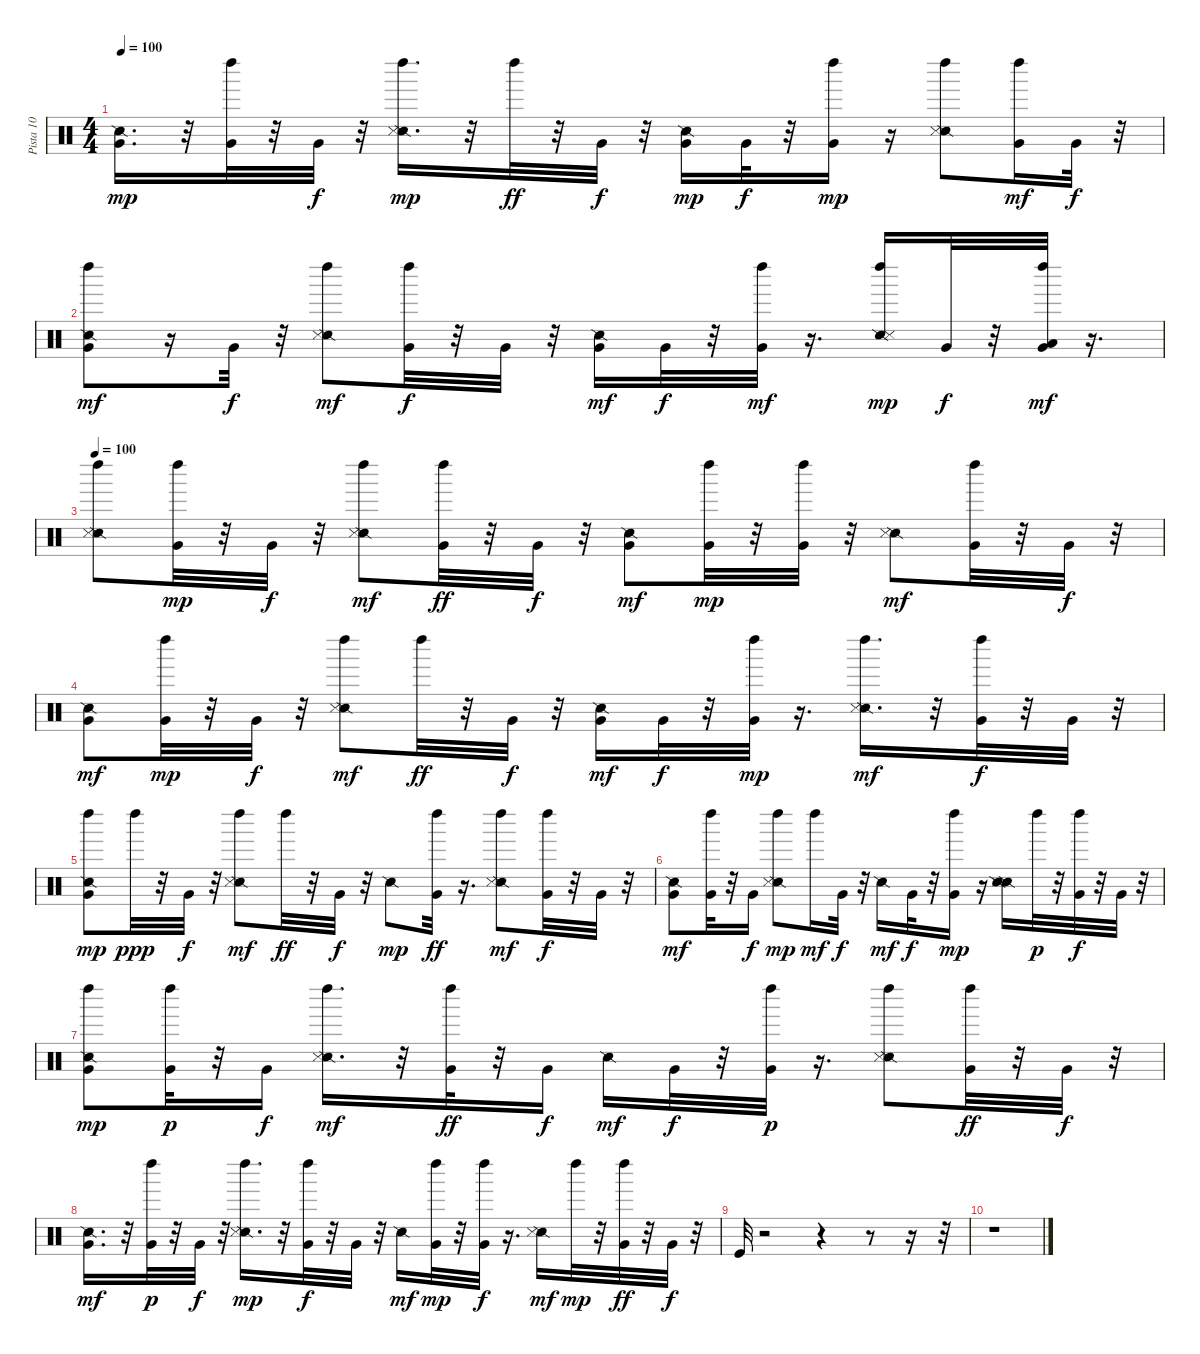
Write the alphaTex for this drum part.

\track ("Pista 10" "Pista 10") {instrument percussion}
\staff {score}
\articulation defaults
\ts (4 4)
\tempo 100
\clef neutral
\ks c
("Snare (side stick) 2" "Very Low Tom (hit)").16{d dy mp} r.32 ("Very Low Tom (hit)" "Left Maraca (hit)").32 r.32 "Very Low Tom (hit)".32{dy f} r.32 ("Snare (side stick) 2" "Metronome (hit)" "Left Maraca (hit)").16{d dy mp} r.32 "Left Maraca (hit)".32{dy ff} r.32 "Very Low Tom (hit)".32{dy f} r.32 ("Snare (side stick) 2" "Very Low Tom (hit)").16{dy mp} "Very Low Tom (hit)".32{dy f} r.32 ("Very Low Tom (hit)" "Left Maraca (hit)").16{dy mp} r.16 ("Snare (side stick) 2" "Metronome (hit)" "Left Maraca (hit)").8 ("Very Low Tom (hit)" "Left Maraca (hit)").16{dy mf} "Very Low Tom (hit)".32{dy f} r.32 |
("Snare (side stick) 2" "Very Low Tom (hit)" "Left Maraca (hit)").8{dy mf} r.16 "Very Low Tom (hit)".32{dy f} r.32 ("Snare (side stick) 2" "Metronome (hit)" "Left Maraca (hit)").8{dy mf} ("Very Low Tom (hit)" "Left Maraca (hit)").32{dy f} r.32 "Very Low Tom (hit)".32 r.32 ("Snare (side stick) 2" "Very Low Tom (hit)").16{dy mf} "Very Low Tom (hit)".32{dy f} r.32 ("Very Low Tom (hit)" "Left Maraca (hit)").32{dy mf} r.16{d} ("Snare (side stick) 2" "Metronome (hit)" "Left Maraca (hit)").16{dy mp} "Very Low Tom (hit)".32{dy f} r.32 ("Very Low Tom (hit)" "Low Tom (hit)" "Left Maraca (hit)").32{dy mf} r.16{d} |
\tempo 100
("Snare (side stick) 2" "Metronome (hit)" "Left Maraca (hit)").8 ("Very Low Tom (hit)" "Left Maraca (hit)").32{dy mp} r.32 "Very Low Tom (hit)".32{dy f} r.32 ("Snare (side stick) 2" "Metronome (hit)" "Left Maraca (hit)").8{dy mf} ("Very Low Tom (hit)" "Left Maraca (hit)").32{dy ff} r.32 "Very Low Tom (hit)".32{dy f} r.32 ("Snare (side stick) 2" "Very Low Tom (hit)").8{dy mf} ("Very Low Tom (hit)" "Left Maraca (hit)").32{dy mp} r.32 ("Very Low Tom (hit)" "Left Maraca (hit)").32 r.32 ("Snare (side stick) 2" "Metronome (hit)").8{dy mf} ("Very Low Tom (hit)" "Left Maraca (hit)").32 r.32 "Very Low Tom (hit)".32{dy f} r.32 |
("Snare (side stick) 2" "Very Low Tom (hit)").8{dy mf} ("Very Low Tom (hit)" "Left Maraca (hit)").32{dy mp} r.32 "Very Low Tom (hit)".32{dy f} r.32 ("Snare (side stick) 2" "Metronome (hit)" "Left Maraca (hit)").8{dy mf} "Left Maraca (hit)".32{dy ff} r.32 "Very Low Tom (hit)".32{dy f} r.32 ("Snare (side stick) 2" "Very Low Tom (hit)").16{dy mf} "Very Low Tom (hit)".32{dy f} r.32 ("Very Low Tom (hit)" "Left Maraca (hit)").32{dy mp} r.16{d} ("Snare (side stick) 2" "Metronome (hit)" "Left Maraca (hit)").16{d dy mf} r.32 ("Very Low Tom (hit)" "Left Maraca (hit)").32{dy f} r.32 "Very Low Tom (hit)".32 r.32 |
("Snare (side stick) 2" "Very Low Tom (hit)" "Left Maraca (hit)").8{dy mp} "Left Maraca (hit)".32{dy ppp} r.32 "Very Low Tom (hit)".32{dy f} r.32 ("Snare (side stick) 2" "Metronome (hit)" "Left Maraca (hit)").8{dy mf} "Left Maraca (hit)".32{dy ff} r.32 "Very Low Tom (hit)".32{dy f} r.32 "Snare (side stick) 2".8{dy mp} ("Very Low Tom (hit)" "Left Maraca (hit)").32{dy ff} r.16{d} ("Snare (side stick) 2" "Metronome (hit)" "Left Maraca (hit)").8{dy mf} ("Very Low Tom (hit)" "Left Maraca (hit)").32{dy f} r.32 "Very Low Tom (hit)".32 r.32 |
("Snare (side stick) 2" "Very Low Tom (hit)").8{dy mf} ("Very Low Tom (hit)" "Left Maraca (hit)").32 r.32 "Very Low Tom (hit)".16{dy f} ("Snare (side stick) 2" "Metronome (hit)" "Left Maraca (hit)").8{dy mp} "Left Maraca (hit)".16{dy mf} "Very Low Tom (hit)".32{dy f} r.32 "Snare (side stick) 2".16{dy mf} "Very Low Tom (hit)".32{dy f} r.32 ("Very Low Tom (hit)" "Left Maraca (hit)").16{dy mp} r.16 ("Snare (side stick) 2" "Metronome (hit)" "Snare (side stick) 2").16 "Left Maraca (hit)".32{dy p} r.32 ("Very Low Tom (hit)" "Left Maraca (hit)").32{dy f} r.32 "Very Low Tom (hit)".32 r.32 |
("Snare (side stick) 2" "Very Low Tom (hit)" "Left Maraca (hit)").8{dy mp} ("Very Low Tom (hit)" "Left Maraca (hit)").32{dy p} r.32 "Very Low Tom (hit)".16{dy f} ("Snare (side stick) 2" "Metronome (hit)" "Left Maraca (hit)").16{d dy mf} r.32 ("Very Low Tom (hit)" "Left Maraca (hit)").32{dy ff} r.32 "Very Low Tom (hit)".16{dy f} "Snare (side stick) 2".16{dy mf} "Very Low Tom (hit)".32{dy f} r.32 ("Very Low Tom (hit)" "Left Maraca (hit)").32{dy p} r.16{d} ("Snare (side stick) 2" "Metronome (hit)" "Left Maraca (hit)").8 ("Very Low Tom (hit)" "Left Maraca (hit)").32{dy ff} r.32 "Very Low Tom (hit)".32{dy f} r.32 |
("Snare (side stick) 2" "Very Low Tom (hit)").16{d dy mf} r.32 ("Very Low Tom (hit)" "Left Maraca (hit)").32{dy p} r.32 "Very Low Tom (hit)".32{dy f} r.32 ("Snare (side stick) 2" "Metronome (hit)" "Left Maraca (hit)").16{d dy mp} r.32 ("Very Low Tom (hit)" "Left Maraca (hit)").32{dy f} r.32 "Very Low Tom (hit)".32 r.32 "Snare (side stick) 2".16{dy mf} ("Very Low Tom (hit)" "Left Maraca (hit)").32{dy mp} r.32 ("Very Low Tom (hit)" "Left Maraca (hit)").32{dy f} r.16{d} ("Snare (side stick) 2" "Metronome (hit)").16{dy mf} "Left Maraca (hit)".32{dy mp} r.32 ("Very Low Tom (hit)" "Left Maraca (hit)").32{dy ff} r.32 "Very Low Tom (hit)".32{dy f} r.32 |
"Kick (hit)".32 r.2 r.4 r.8 r.16 r.32 |
r.1
